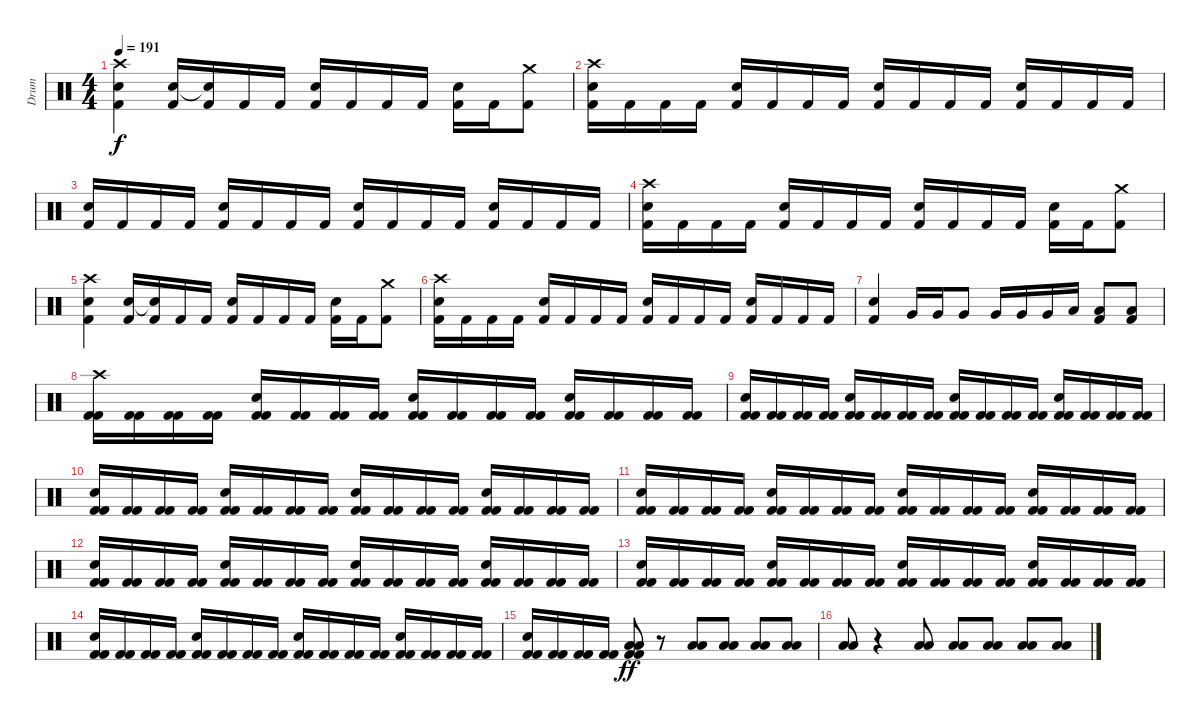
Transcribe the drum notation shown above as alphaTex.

\track ("Drum" "Drum") {instrument percussion}
\staff {score}
\articulation defaults
\ts (4 4)
\tempo 191
\clef neutral
\ks c
("Kick (hit) 2" "Snare (hit) 2" "Crash high (hit)").4{dy f} ("Kick (hit) 2" "Snare (hit) 2").16 ("Kick (hit) 2" "Snare (hit)"{t}).16 "Kick (hit) 2".16 "Kick (hit) 2".16 ("Kick (hit) 2" "Snare (hit) 2").16 "Kick (hit) 2".16 "Kick (hit) 2".16 "Kick (hit) 2".16 ("Kick (hit) 2" "Snare (hit) 2").16 "Kick (hit) 2".16 ("Kick (hit) 2" "Crash medium (hit)").8 |
("Kick (hit) 2" "Snare (hit) 2" "Crash high (hit)").16 "Kick (hit) 2".16 "Kick (hit) 2".16 "Kick (hit) 2".16 ("Kick (hit) 2" "Snare (hit) 2").16 "Kick (hit) 2".16 "Kick (hit) 2".16 "Kick (hit) 2".16 ("Kick (hit) 2" "Snare (hit) 2").16 "Kick (hit) 2".16 "Kick (hit) 2".16 "Kick (hit) 2".16 ("Kick (hit) 2" "Snare (hit) 2").16 "Kick (hit) 2".16 "Kick (hit) 2".16 "Kick (hit) 2".16 |
("Kick (hit) 2" "Snare (hit) 2").16 "Kick (hit) 2".16 "Kick (hit) 2".16 "Kick (hit) 2".16 ("Kick (hit) 2" "Snare (hit) 2").16 "Kick (hit) 2".16 "Kick (hit) 2".16 "Kick (hit) 2".16 ("Kick (hit) 2" "Snare (hit) 2").16 "Kick (hit) 2".16 "Kick (hit) 2".16 "Kick (hit) 2".16 ("Kick (hit) 2" "Snare (hit) 2").16 "Kick (hit) 2".16 "Kick (hit) 2".16 "Kick (hit) 2".16 |
("Kick (hit) 2" "Snare (hit) 2" "Crash high (hit)").16 "Kick (hit) 2".16 "Kick (hit) 2".16 "Kick (hit) 2".16 ("Kick (hit) 2" "Snare (hit) 2").16 "Kick (hit) 2".16 "Kick (hit) 2".16 "Kick (hit) 2".16 ("Kick (hit) 2" "Snare (hit) 2").16 "Kick (hit) 2".16 "Kick (hit) 2".16 "Kick (hit) 2".16 ("Kick (hit) 2" "Snare (hit) 2").16 "Kick (hit) 2".16 ("Kick (hit) 2" "Crash medium (hit)").8 |
("Kick (hit) 2" "Snare (hit) 2" "Crash high (hit)").4 ("Kick (hit) 2" "Snare (hit) 2").16 ("Kick (hit) 2" "Snare (hit)"{t}).16 "Kick (hit) 2".16 "Kick (hit) 2".16 ("Kick (hit) 2" "Snare (hit) 2").16 "Kick (hit) 2".16 "Kick (hit) 2".16 "Kick (hit) 2".16 ("Kick (hit) 2" "Snare (hit) 2").16 "Kick (hit) 2".16 ("Kick (hit) 2" "Crash medium (hit)").8 |
("Kick (hit) 2" "Snare (hit) 2" "Crash high (hit)").16 "Kick (hit) 2".16 "Kick (hit) 2".16 "Kick (hit) 2".16 ("Kick (hit) 2" "Snare (hit) 2").16 "Kick (hit) 2".16 "Kick (hit) 2".16 "Kick (hit) 2".16 ("Kick (hit) 2" "Snare (hit) 2").16 "Kick (hit) 2".16 "Kick (hit) 2".16 "Kick (hit) 2".16 ("Kick (hit) 2" "Snare (hit) 2").16 "Kick (hit) 2".16 "Kick (hit) 2".16 "Kick (hit) 2".16 |
("Kick (hit) 2" "Snare (hit) 2").4 "Very Low Tom (hit)".16 "Very Low Tom (hit)".16 "Very Low Tom (hit)".8 "Very Low Tom (hit)".16 "Very Low Tom (hit)".16 "Very Low Tom (hit)".16 "Low Tom (hit)".16 ("Kick (hit) 2" "Low Floor Tom (hit)").8 ("Kick (hit) 2" "Low Floor Tom (hit)").8 |
("Kick (hit) 2" "Kick (hit) 2" "Crash high (hit)").16 ("Kick (hit) 2" "Kick (hit) 2").16 ("Kick (hit) 2" "Kick (hit) 2").16 ("Kick (hit) 2" "Kick (hit) 2").16 ("Kick (hit) 2" "Kick (hit) 2" "Snare (hit) 2").16 ("Kick (hit) 2" "Kick (hit) 2").16 ("Kick (hit) 2" "Kick (hit) 2").16 ("Kick (hit) 2" "Kick (hit) 2").16 ("Kick (hit) 2" "Kick (hit) 2" "Snare (hit) 2").16 ("Kick (hit) 2" "Kick (hit) 2").16 ("Kick (hit) 2" "Kick (hit) 2").16 ("Kick (hit) 2" "Kick (hit) 2").16 ("Kick (hit) 2" "Kick (hit) 2" "Snare (hit) 2").16 ("Kick (hit) 2" "Kick (hit) 2").16 ("Kick (hit) 2" "Kick (hit) 2").16 ("Kick (hit) 2" "Kick (hit) 2").16 |
("Kick (hit) 2" "Kick (hit) 2" "Snare (hit) 2").16 ("Kick (hit) 2" "Kick (hit) 2").16 ("Kick (hit) 2" "Kick (hit) 2").16 ("Kick (hit) 2" "Kick (hit) 2").16 ("Kick (hit) 2" "Kick (hit) 2" "Snare (hit) 2").16 ("Kick (hit) 2" "Kick (hit) 2").16 ("Kick (hit) 2" "Kick (hit) 2").16 ("Kick (hit) 2" "Kick (hit) 2").16 ("Kick (hit) 2" "Kick (hit) 2" "Snare (hit) 2").16 ("Kick (hit) 2" "Kick (hit) 2").16 ("Kick (hit) 2" "Kick (hit) 2").16 ("Kick (hit) 2" "Kick (hit) 2").16 ("Kick (hit) 2" "Kick (hit) 2" "Snare (hit) 2").16 ("Kick (hit) 2" "Kick (hit) 2").16 ("Kick (hit) 2" "Kick (hit) 2").16 ("Kick (hit) 2" "Kick (hit) 2").16 |
("Kick (hit) 2" "Kick (hit) 2" "Snare (hit) 2").16 ("Kick (hit) 2" "Kick (hit) 2").16 ("Kick (hit) 2" "Kick (hit) 2").16 ("Kick (hit) 2" "Kick (hit) 2").16 ("Kick (hit) 2" "Kick (hit) 2" "Snare (hit) 2").16 ("Kick (hit) 2" "Kick (hit) 2").16 ("Kick (hit) 2" "Kick (hit) 2").16 ("Kick (hit) 2" "Kick (hit) 2").16 ("Kick (hit) 2" "Kick (hit) 2" "Snare (hit) 2").16 ("Kick (hit) 2" "Kick (hit) 2").16 ("Kick (hit) 2" "Kick (hit) 2").16 ("Kick (hit) 2" "Kick (hit) 2").16 ("Kick (hit) 2" "Kick (hit) 2" "Snare (hit) 2").16 ("Kick (hit) 2" "Kick (hit) 2").16 ("Kick (hit) 2" "Kick (hit) 2").16 ("Kick (hit) 2" "Kick (hit) 2").16 |
("Kick (hit) 2" "Kick (hit) 2" "Snare (hit) 2").16 ("Kick (hit) 2" "Kick (hit) 2").16 ("Kick (hit) 2" "Kick (hit) 2").16 ("Kick (hit) 2" "Kick (hit) 2").16 ("Kick (hit) 2" "Kick (hit) 2" "Snare (hit) 2").16 ("Kick (hit) 2" "Kick (hit) 2").16 ("Kick (hit) 2" "Kick (hit) 2").16 ("Kick (hit) 2" "Kick (hit) 2").16 ("Kick (hit) 2" "Kick (hit) 2" "Snare (hit) 2").16 ("Kick (hit) 2" "Kick (hit) 2").16 ("Kick (hit) 2" "Kick (hit) 2").16 ("Kick (hit) 2" "Kick (hit) 2").16 ("Kick (hit) 2" "Kick (hit) 2" "Snare (hit) 2").16 ("Kick (hit) 2" "Kick (hit) 2").16 ("Kick (hit) 2" "Kick (hit) 2").16 ("Kick (hit) 2" "Kick (hit) 2").16 |
("Kick (hit) 2" "Kick (hit) 2" "Snare (hit) 2").16 ("Kick (hit) 2" "Kick (hit) 2").16 ("Kick (hit) 2" "Kick (hit) 2").16 ("Kick (hit) 2" "Kick (hit) 2").16 ("Kick (hit) 2" "Kick (hit) 2" "Snare (hit) 2").16 ("Kick (hit) 2" "Kick (hit) 2").16 ("Kick (hit) 2" "Kick (hit) 2").16 ("Kick (hit) 2" "Kick (hit) 2").16 ("Kick (hit) 2" "Kick (hit) 2" "Snare (hit) 2").16 ("Kick (hit) 2" "Kick (hit) 2").16 ("Kick (hit) 2" "Kick (hit) 2").16 ("Kick (hit) 2" "Kick (hit) 2").16 ("Kick (hit) 2" "Kick (hit) 2" "Snare (hit) 2").16 ("Kick (hit) 2" "Kick (hit) 2").16 ("Kick (hit) 2" "Kick (hit) 2").16 ("Kick (hit) 2" "Kick (hit) 2").16 |
("Kick (hit) 2" "Kick (hit) 2" "Snare (hit) 2").16 ("Kick (hit) 2" "Kick (hit) 2").16 ("Kick (hit) 2" "Kick (hit) 2").16 ("Kick (hit) 2" "Kick (hit) 2").16 ("Kick (hit) 2" "Kick (hit) 2" "Snare (hit) 2").16 ("Kick (hit) 2" "Kick (hit) 2").16 ("Kick (hit) 2" "Kick (hit) 2").16 ("Kick (hit) 2" "Kick (hit) 2").16 ("Kick (hit) 2" "Kick (hit) 2" "Snare (hit) 2").16 ("Kick (hit) 2" "Kick (hit) 2").16 ("Kick (hit) 2" "Kick (hit) 2").16 ("Kick (hit) 2" "Kick (hit) 2").16 ("Kick (hit) 2" "Kick (hit) 2" "Snare (hit) 2").16 ("Kick (hit) 2" "Kick (hit) 2").16 ("Kick (hit) 2" "Kick (hit) 2").16 ("Kick (hit) 2" "Kick (hit) 2").16 |
("Kick (hit) 2" "Kick (hit) 2" "Snare (hit) 2").16 ("Kick (hit) 2" "Kick (hit) 2").16 ("Kick (hit) 2" "Kick (hit) 2").16 ("Kick (hit) 2" "Kick (hit) 2").16 ("Kick (hit) 2" "Kick (hit) 2" "Snare (hit) 2").16 ("Kick (hit) 2" "Kick (hit) 2").16 ("Kick (hit) 2" "Kick (hit) 2").16 ("Kick (hit) 2" "Kick (hit) 2").16 ("Kick (hit) 2" "Kick (hit) 2" "Snare (hit) 2").16 ("Kick (hit) 2" "Kick (hit) 2").16 ("Kick (hit) 2" "Kick (hit) 2").16 ("Kick (hit) 2" "Kick (hit) 2").16 ("Kick (hit) 2" "Kick (hit) 2" "Snare (hit) 2").16 ("Kick (hit) 2" "Kick (hit) 2").16 ("Kick (hit) 2" "Kick (hit) 2").16 ("Kick (hit) 2" "Kick (hit) 2").16 |
("Kick (hit) 2" "Kick (hit) 2" "Snare (hit) 2").16 ("Kick (hit) 2" "Kick (hit) 2").16 ("Kick (hit) 2" "Kick (hit) 2").16 ("Kick (hit) 2" "Kick (hit) 2").16 ("Kick (hit) 2" "Kick (hit) 2" "Low Floor Tom (hit)" "Low Floor Tom (hit)").8{dy ff} r.8 ("Low Floor Tom (hit)" "Low Floor Tom (hit)").8 ("Low Floor Tom (hit)" "Low Floor Tom (hit)").8 ("Low Floor Tom (hit)" "Low Floor Tom (hit)").8 ("Low Floor Tom (hit)" "Low Floor Tom (hit)").8 |
("Low Floor Tom (hit)" "Low Floor Tom (hit)").8 r.4 ("Low Floor Tom (hit)" "Low Floor Tom (hit)").8 ("Low Floor Tom (hit)" "Low Floor Tom (hit)").8 ("Low Floor Tom (hit)" "Low Floor Tom (hit)").8 ("Low Floor Tom (hit)" "Low Floor Tom (hit)").8 ("Low Floor Tom (hit)" "Low Floor Tom (hit)").8
